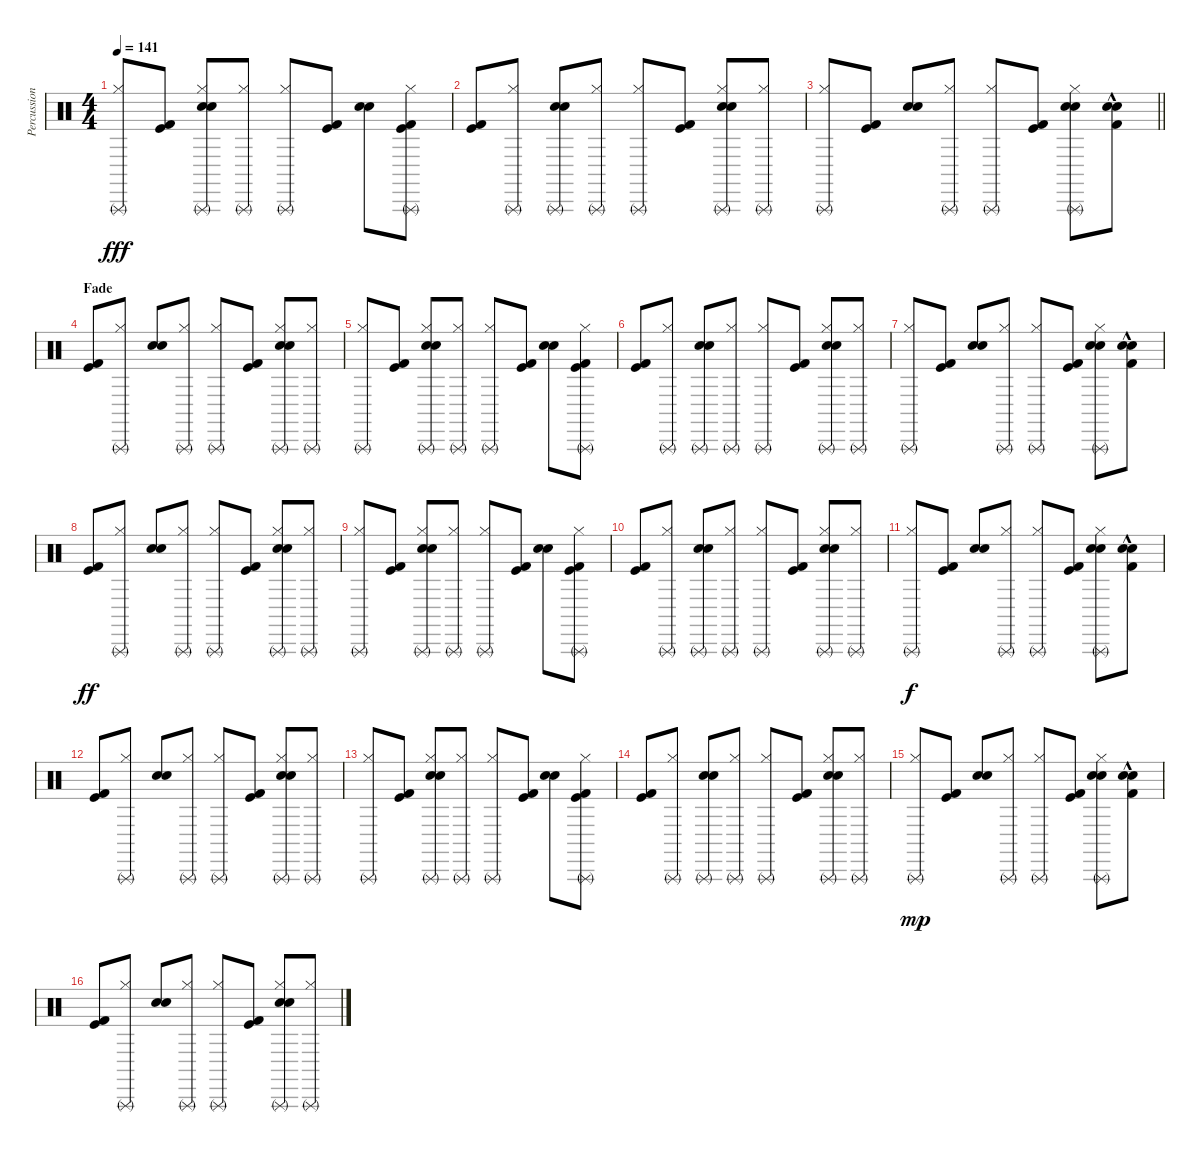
\track ("Percussion" "Percussion") {instrument percussion}
\staff {score}
\articulation defaults
\ts (4 4)
\tempo 141
\clef neutral
\ks c
("Hi-Hat (closed)" "Triangle (rnute)").8{dy fff} ("Kick (hit)" "Kick (hit) 2").8 ("Snare (hit) 2" "Electric Snare (hit)" "Hi-Hat (closed)" "Triangle (rnute)").8 ("Hi-Hat (closed)" "Triangle (rnute)").8 ("Hi-Hat (closed)" "Triangle (rnute)").8 ("Kick (hit)" "Kick (hit) 2").8 ("Snare (hit) 2" "Electric Snare (hit)").8 ("Kick (hit)" "Kick (hit) 2" "Hi-Hat (closed)" "Triangle (rnute)").8 |
("Kick (hit)" "Kick (hit) 2").8 ("Hi-Hat (closed)" "Triangle (rnute)").8 ("Snare (hit) 2" "Electric Snare (hit)" "Triangle (rnute)").8 ("Hi-Hat (closed)" "Triangle (rnute)").8 ("Hi-Hat (closed)" "Triangle (rnute)").8 ("Kick (hit)" "Kick (hit) 2").8 ("Snare (hit) 2" "Electric Snare (hit)" "Hi-Hat (closed)" "Triangle (rnute)").8 ("Hi-Hat (closed)" "Triangle (rnute)").8 |
\barLineRight lightlight
("Hi-Hat (closed)" "Triangle (rnute)").8 ("Kick (hit)" "Kick (hit) 2").8 ("Snare (hit) 2" "Electric Snare (hit)").8 ("Hi-Hat (closed)" "Triangle (rnute)").8 ("Hi-Hat (closed)" "Triangle (rnute)").8 ("Kick (hit)" "Kick (hit) 2").8 ("Snare (hit) 2" "Electric Snare (hit)" "Hi-Hat (closed)" "Triangle (rnute)").8 ("Kick (hit) 2" "Snare (hit) 2" "Electric Snare (hit)"{hac}).8 |
\section ("" "Fade")
("Kick (hit)" "Kick (hit) 2").8 ("Hi-Hat (closed)" "Triangle (rnute)").8 ("Snare (hit) 2" "Electric Snare (hit)").8 ("Hi-Hat (closed)" "Triangle (rnute)").8 ("Hi-Hat (closed)" "Triangle (rnute)").8 ("Kick (hit)" "Kick (hit) 2").8 ("Snare (hit) 2" "Electric Snare (hit)" "Hi-Hat (closed)" "Triangle (rnute)").8 ("Hi-Hat (closed)" "Triangle (rnute)").8 |
("Hi-Hat (closed)" "Triangle (rnute)").8 ("Kick (hit)" "Kick (hit) 2").8 ("Snare (hit) 2" "Electric Snare (hit)" "Hi-Hat (closed)" "Triangle (rnute)").8 ("Hi-Hat (closed)" "Triangle (rnute)").8 ("Hi-Hat (closed)" "Triangle (rnute)").8 ("Kick (hit)" "Kick (hit) 2").8 ("Snare (hit) 2" "Electric Snare (hit)").8 ("Kick (hit)" "Kick (hit) 2" "Hi-Hat (closed)" "Triangle (rnute)").8 |
("Kick (hit)" "Kick (hit) 2").8 ("Hi-Hat (closed)" "Triangle (rnute)").8 ("Snare (hit) 2" "Electric Snare (hit)" "Triangle (rnute)").8 ("Hi-Hat (closed)" "Triangle (rnute)").8 ("Hi-Hat (closed)" "Triangle (rnute)").8 ("Kick (hit)" "Kick (hit) 2").8 ("Snare (hit) 2" "Electric Snare (hit)" "Hi-Hat (closed)" "Triangle (rnute)").8 ("Hi-Hat (closed)" "Triangle (rnute)").8 |
("Hi-Hat (closed)" "Triangle (rnute)").8 ("Kick (hit)" "Kick (hit) 2").8 ("Snare (hit) 2" "Electric Snare (hit)").8 ("Hi-Hat (closed)" "Triangle (rnute)").8 ("Hi-Hat (closed)" "Triangle (rnute)").8 ("Kick (hit)" "Kick (hit) 2").8 ("Snare (hit) 2" "Electric Snare (hit)" "Hi-Hat (closed)" "Triangle (rnute)").8 ("Kick (hit) 2" "Snare (hit) 2" "Electric Snare (hit)"{hac}).8 |
("Kick (hit)" "Kick (hit) 2").8{dy ff} ("Hi-Hat (closed)" "Triangle (rnute)").8 ("Snare (hit) 2" "Electric Snare (hit)").8 ("Hi-Hat (closed)" "Triangle (rnute)").8 ("Hi-Hat (closed)" "Triangle (rnute)").8 ("Kick (hit)" "Kick (hit) 2").8 ("Snare (hit) 2" "Electric Snare (hit)" "Hi-Hat (closed)" "Triangle (rnute)").8 ("Hi-Hat (closed)" "Triangle (rnute)").8 |
("Hi-Hat (closed)" "Triangle (rnute)").8 ("Kick (hit)" "Kick (hit) 2").8 ("Snare (hit) 2" "Electric Snare (hit)" "Hi-Hat (closed)" "Triangle (rnute)").8 ("Hi-Hat (closed)" "Triangle (rnute)").8 ("Hi-Hat (closed)" "Triangle (rnute)").8 ("Kick (hit)" "Kick (hit) 2").8 ("Snare (hit) 2" "Electric Snare (hit)").8 ("Kick (hit)" "Kick (hit) 2" "Hi-Hat (closed)" "Triangle (rnute)").8 |
("Kick (hit)" "Kick (hit) 2").8 ("Hi-Hat (closed)" "Triangle (rnute)").8 ("Snare (hit) 2" "Electric Snare (hit)" "Triangle (rnute)").8 ("Hi-Hat (closed)" "Triangle (rnute)").8 ("Hi-Hat (closed)" "Triangle (rnute)").8 ("Kick (hit)" "Kick (hit) 2").8 ("Snare (hit) 2" "Electric Snare (hit)" "Hi-Hat (closed)" "Triangle (rnute)").8 ("Hi-Hat (closed)" "Triangle (rnute)").8 |
("Hi-Hat (closed)" "Triangle (rnute)").8{dy f} ("Kick (hit)" "Kick (hit) 2").8 ("Snare (hit) 2" "Electric Snare (hit)").8 ("Hi-Hat (closed)" "Triangle (rnute)").8 ("Hi-Hat (closed)" "Triangle (rnute)").8 ("Kick (hit)" "Kick (hit) 2").8 ("Snare (hit) 2" "Electric Snare (hit)" "Hi-Hat (closed)" "Triangle (rnute)").8 ("Kick (hit) 2" "Snare (hit) 2" "Electric Snare (hit)"{hac}).8 |
("Kick (hit)" "Kick (hit) 2").8 ("Hi-Hat (closed)" "Triangle (rnute)").8 ("Snare (hit) 2" "Electric Snare (hit)").8 ("Hi-Hat (closed)" "Triangle (rnute)").8 ("Hi-Hat (closed)" "Triangle (rnute)").8 ("Kick (hit)" "Kick (hit) 2").8 ("Snare (hit) 2" "Electric Snare (hit)" "Hi-Hat (closed)" "Triangle (rnute)").8 ("Hi-Hat (closed)" "Triangle (rnute)").8 |
("Hi-Hat (closed)" "Triangle (rnute)").8 ("Kick (hit)" "Kick (hit) 2").8 ("Snare (hit) 2" "Electric Snare (hit)" "Hi-Hat (closed)" "Triangle (rnute)").8 ("Hi-Hat (closed)" "Triangle (rnute)").8 ("Hi-Hat (closed)" "Triangle (rnute)").8 ("Kick (hit)" "Kick (hit) 2").8 ("Snare (hit) 2" "Electric Snare (hit)").8 ("Kick (hit)" "Kick (hit) 2" "Hi-Hat (closed)" "Triangle (rnute)").8 |
("Kick (hit)" "Kick (hit) 2").8 ("Hi-Hat (closed)" "Triangle (rnute)").8 ("Snare (hit) 2" "Electric Snare (hit)" "Triangle (rnute)").8 ("Hi-Hat (closed)" "Triangle (rnute)").8 ("Hi-Hat (closed)" "Triangle (rnute)").8 ("Kick (hit)" "Kick (hit) 2").8 ("Snare (hit) 2" "Electric Snare (hit)" "Hi-Hat (closed)" "Triangle (rnute)").8 ("Hi-Hat (closed)" "Triangle (rnute)").8 |
("Hi-Hat (closed)" "Triangle (rnute)").8{dy mp} ("Kick (hit)" "Kick (hit) 2").8 ("Snare (hit) 2" "Electric Snare (hit)").8 ("Hi-Hat (closed)" "Triangle (rnute)").8 ("Hi-Hat (closed)" "Triangle (rnute)").8 ("Kick (hit)" "Kick (hit) 2").8 ("Snare (hit) 2" "Electric Snare (hit)" "Hi-Hat (closed)" "Triangle (rnute)").8 ("Kick (hit) 2" "Snare (hit) 2" "Electric Snare (hit)"{hac}).8 |
("Kick (hit)" "Kick (hit) 2").8 ("Hi-Hat (closed)" "Triangle (rnute)").8 ("Snare (hit) 2" "Electric Snare (hit)").8 ("Hi-Hat (closed)" "Triangle (rnute)").8 ("Hi-Hat (closed)" "Triangle (rnute)").8 ("Kick (hit)" "Kick (hit) 2").8 ("Snare (hit) 2" "Electric Snare (hit)" "Hi-Hat (closed)" "Triangle (rnute)").8 ("Hi-Hat (closed)" "Triangle (rnute)").8
